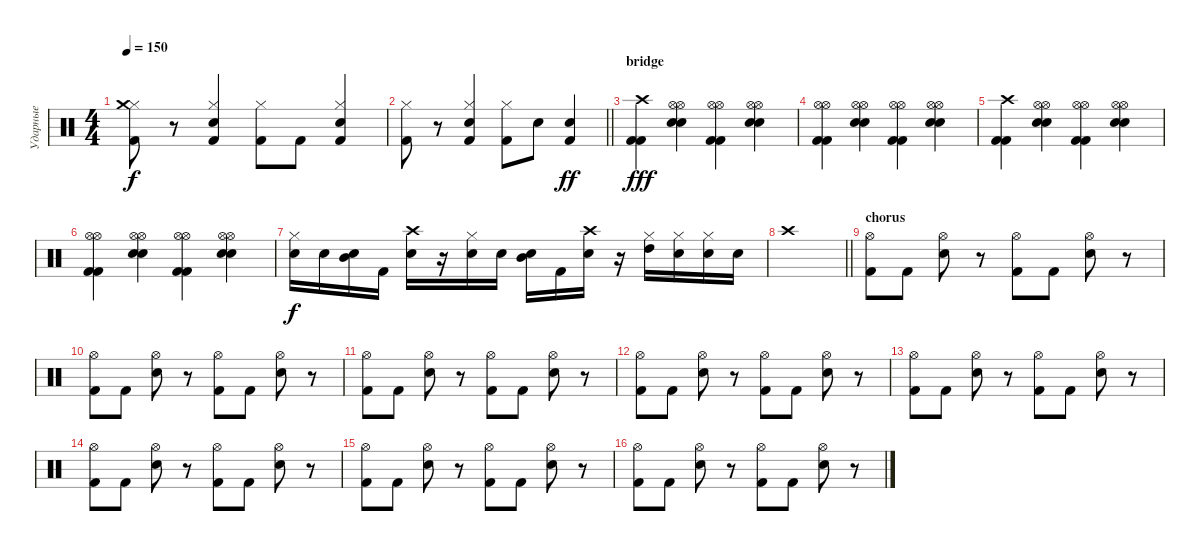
\track ("Ударные" "Ударные") {instrument percussion}
\staff {score}
\articulation defaults
\ts (4 4)
\tempo 150
\clef neutral
\ks c
("Kick (hit) 2" "Hi-Hat (closed)" "Crash medium (hit)").8{dy f} r.8 ("Kick (hit) 2" "Snare (hit) 2" "Hi-Hat (closed)").4 ("Kick (hit) 2" "Hi-Hat (closed)").8 "Kick (hit) 2".8 ("Kick (hit) 2" "Snare (hit) 2" "Hi-Hat (closed)").4 |
\barLineRight lightlight
("Kick (hit) 2" "Hi-Hat (closed)").8 r.8 ("Kick (hit) 2" "Snare (hit) 2" "Hi-Hat (closed)").4 ("Kick (hit) 2" "Hi-Hat (closed)").8 "Snare (hit) 2".8 ("Kick (hit) 2" "Snare (hit) 2").4{dy ff} |
\section ("" "bridge")
("Crash high (hit)" "Kick (hit) 2" "Kick (hit) 2").4{dy fff} ("Hi-Hat (open)" "Hi-Hat (open)" "Electric Snare (hit)" "Electric Snare (hit)").4 ("Hi-Hat (open)" "Hi-Hat (open)" "Kick (hit) 2" "Kick (hit) 2").4 ("Hi-Hat (open)" "Hi-Hat (open)" "Electric Snare (hit)" "Electric Snare (hit)").4 |
("Hi-Hat (open)" "Hi-Hat (open)" "Kick (hit) 2" "Kick (hit) 2").4 ("Hi-Hat (open)" "Hi-Hat (open)" "Electric Snare (hit)" "Electric Snare (hit)").4 ("Hi-Hat (open)" "Hi-Hat (open)" "Kick (hit) 2" "Kick (hit) 2").4 ("Hi-Hat (open)" "Hi-Hat (open)" "Electric Snare (hit)" "Electric Snare (hit)").4 |
("Crash high (hit)" "Kick (hit) 2" "Kick (hit) 2").4 ("Hi-Hat (open)" "Hi-Hat (open)" "Electric Snare (hit)" "Electric Snare (hit)").4 ("Hi-Hat (open)" "Hi-Hat (open)" "Kick (hit) 2" "Kick (hit) 2").4 ("Hi-Hat (open)" "Hi-Hat (open)" "Electric Snare (hit)" "Electric Snare (hit)").4 |
("Hi-Hat (open)" "Hi-Hat (open)" "Kick (hit) 2" "Kick (hit) 2").4 ("Hi-Hat (open)" "Hi-Hat (open)" "Electric Snare (hit)" "Electric Snare (hit)").4 ("Hi-Hat (open)" "Hi-Hat (open)" "Kick (hit) 2" "Kick (hit) 2").4 ("Hi-Hat (open)" "Hi-Hat (open)" "Electric Snare (hit)" "Electric Snare (hit)").4 |
("Hi-Hat (closed)" "Snare (hit) 2").16{dy f} "Snare (hit) 2".16 ("Snare (hit) 2" "Mid Tom (hit)").16 "Kick (hit) 2".16 ("Crash high (hit)" "Snare (hit) 2").16 r.16 ("Hi-Hat (closed)" "Snare (hit) 2").16 "Snare (hit) 2".16 ("Snare (hit) 2" "Mid Tom (hit)").16 "Kick (hit) 2".16 ("Crash high (hit)" "Snare (hit) 2").16 r.16 ("Hi-Hat (closed)" "High Tom (hit)").16 ("Hi-Hat (closed)" "Snare (hit) 2").16 ("Hi-Hat (closed)" "Snare (hit) 2").16 "Snare (hit) 2".16 |
\barLineRight lightlight "Crash high (hit)".1
|
\section ("" "chorus")
("Kick (hit) 2" "Hi-Hat (open)").8 "Kick (hit) 2".8 ("Snare (hit) 2" "Hi-Hat (open)").8 r.8 ("Kick (hit) 2" "Hi-Hat (open)").8 "Kick (hit) 2".8 ("Snare (hit) 2" "Hi-Hat (open)").8 r.8 |
("Kick (hit) 2" "Hi-Hat (open)").8 "Kick (hit) 2".8 ("Snare (hit) 2" "Hi-Hat (open)").8 r.8 ("Kick (hit) 2" "Hi-Hat (open)").8 "Kick (hit) 2".8 ("Snare (hit) 2" "Hi-Hat (open)").8 r.8 |
("Kick (hit) 2" "Hi-Hat (open)").8 "Kick (hit) 2".8 ("Snare (hit) 2" "Hi-Hat (open)").8 r.8 ("Kick (hit) 2" "Hi-Hat (open)").8 "Kick (hit) 2".8 ("Snare (hit) 2" "Hi-Hat (open)").8 r.8 |
("Kick (hit) 2" "Hi-Hat (open)").8 "Kick (hit) 2".8 ("Snare (hit) 2" "Hi-Hat (open)").8 r.8 ("Kick (hit) 2" "Hi-Hat (open)").8 "Kick (hit) 2".8 ("Snare (hit) 2" "Hi-Hat (open)").8 r.8 |
("Kick (hit) 2" "Hi-Hat (open)").8 "Kick (hit) 2".8 ("Snare (hit) 2" "Hi-Hat (open)").8 r.8 ("Kick (hit) 2" "Hi-Hat (open)").8 "Kick (hit) 2".8 ("Snare (hit) 2" "Hi-Hat (open)").8 r.8 |
("Kick (hit) 2" "Hi-Hat (open)").8 "Kick (hit) 2".8 ("Snare (hit) 2" "Hi-Hat (open)").8 r.8 ("Kick (hit) 2" "Hi-Hat (open)").8 "Kick (hit) 2".8 ("Snare (hit) 2" "Hi-Hat (open)").8 r.8 |
("Kick (hit) 2" "Hi-Hat (open)").8 "Kick (hit) 2".8 ("Snare (hit) 2" "Hi-Hat (open)").8 r.8 ("Kick (hit) 2" "Hi-Hat (open)").8 "Kick (hit) 2".8 ("Snare (hit) 2" "Hi-Hat (open)").8 r.8 |
("Kick (hit) 2" "Hi-Hat (open)").8 "Kick (hit) 2".8 ("Snare (hit) 2" "Hi-Hat (open)").8 r.8 ("Kick (hit) 2" "Hi-Hat (open)").8 "Kick (hit) 2".8 ("Snare (hit) 2" "Hi-Hat (open)").8 r.8
